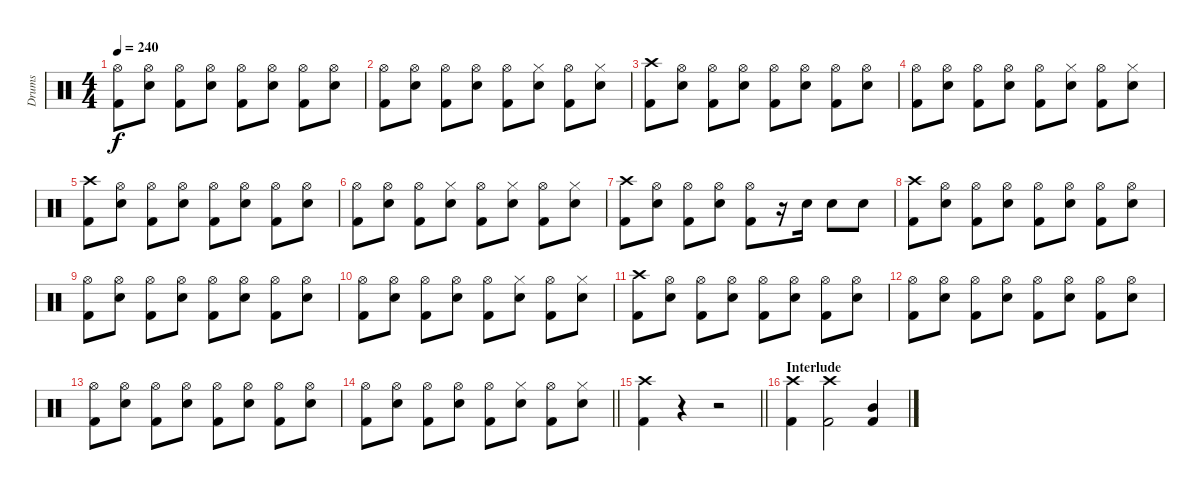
\track ("Drums" "Drums") {instrument percussion}
\staff {score}
\articulation defaults
\ts (4 4)
\tempo 240
\clef neutral
\ks c
("Hi-Hat (open)" "Kick (hit) 2").8{dy f} ("Hi-Hat (open)" "Snare (hit) 2").8 ("Hi-Hat (open)" "Kick (hit) 2").8 ("Hi-Hat (open)" "Snare (hit) 2").8 ("Hi-Hat (open)" "Kick (hit) 2").8 ("Hi-Hat (open)" "Snare (hit) 2").8 ("Hi-Hat (open)" "Kick (hit) 2").8 ("Hi-Hat (open)" "Snare (hit) 2").8 |
("Hi-Hat (open)" "Kick (hit) 2").8 ("Hi-Hat (open)" "Snare (hit) 2").8 ("Hi-Hat (open)" "Kick (hit) 2").8 ("Hi-Hat (open)" "Snare (hit) 2").8 ("Hi-Hat (open)" "Kick (hit) 2").8 ("Hi-Hat (closed)" "Snare (hit) 2").8 ("Hi-Hat (open)" "Kick (hit) 2").8 ("Hi-Hat (closed)" "Snare (hit) 2").8 |
("Crash high (hit)" "Kick (hit) 2").8 ("Hi-Hat (open)" "Snare (hit) 2").8 ("Hi-Hat (open)" "Kick (hit) 2").8 ("Hi-Hat (open)" "Snare (hit) 2").8 ("Hi-Hat (open)" "Kick (hit) 2").8 ("Hi-Hat (open)" "Snare (hit) 2").8 ("Hi-Hat (open)" "Kick (hit) 2").8 ("Hi-Hat (open)" "Snare (hit) 2").8 |
("Hi-Hat (open)" "Kick (hit) 2").8 ("Hi-Hat (open)" "Snare (hit) 2").8 ("Hi-Hat (open)" "Kick (hit) 2").8 ("Hi-Hat (open)" "Snare (hit) 2").8 ("Hi-Hat (open)" "Kick (hit) 2").8 ("Hi-Hat (closed)" "Snare (hit) 2").8 ("Hi-Hat (open)" "Kick (hit) 2").8 ("Hi-Hat (closed)" "Snare (hit) 2").8 |
("Crash high (hit)" "Kick (hit) 2").8 ("Hi-Hat (open)" "Snare (hit) 2").8 ("Hi-Hat (open)" "Kick (hit) 2").8 ("Hi-Hat (open)" "Snare (hit) 2").8 ("Hi-Hat (open)" "Kick (hit) 2").8 ("Hi-Hat (open)" "Snare (hit) 2").8 ("Hi-Hat (open)" "Kick (hit) 2").8 ("Hi-Hat (open)" "Snare (hit) 2").8 |
("Hi-Hat (open)" "Kick (hit) 2").8 ("Hi-Hat (open)" "Snare (hit) 2").8 ("Hi-Hat (open)" "Kick (hit) 2").8 ("Hi-Hat (closed)" "Snare (hit) 2").8 ("Hi-Hat (open)" "Kick (hit) 2").8 ("Hi-Hat (closed)" "Snare (hit) 2").8 ("Hi-Hat (open)" "Kick (hit) 2").8 ("Hi-Hat (closed)" "Snare (hit) 2").8 |
("Crash high (hit)" "Kick (hit) 2").8 ("Hi-Hat (open)" "Snare (hit) 2").8 ("Hi-Hat (open)" "Kick (hit) 2").8 ("Hi-Hat (open)" "Snare (hit) 2").8 ("Hi-Hat (open)" "Kick (hit) 2").8 r.16 "Snare (hit) 2".16 "Snare (hit) 2".8 "Snare (hit) 2".8 |
("Crash high (hit)" "Kick (hit) 2").8 ("Hi-Hat (open)" "Snare (hit) 2").8 ("Hi-Hat (open)" "Kick (hit) 2").8 ("Hi-Hat (open)" "Snare (hit) 2").8 ("Hi-Hat (open)" "Kick (hit) 2").8 ("Hi-Hat (open)" "Snare (hit) 2").8 ("Hi-Hat (open)" "Kick (hit) 2").8 ("Hi-Hat (open)" "Snare (hit) 2").8 |
("Hi-Hat (open)" "Kick (hit) 2").8 ("Hi-Hat (open)" "Snare (hit) 2").8 ("Hi-Hat (open)" "Kick (hit) 2").8 ("Hi-Hat (open)" "Snare (hit) 2").8 ("Hi-Hat (open)" "Kick (hit) 2").8 ("Hi-Hat (open)" "Snare (hit) 2").8 ("Hi-Hat (open)" "Kick (hit) 2").8 ("Hi-Hat (open)" "Snare (hit) 2").8 |
("Hi-Hat (open)" "Kick (hit) 2").8 ("Hi-Hat (open)" "Snare (hit) 2").8 ("Hi-Hat (open)" "Kick (hit) 2").8 ("Hi-Hat (open)" "Snare (hit) 2").8 ("Hi-Hat (open)" "Kick (hit) 2").8 ("Hi-Hat (closed)" "Snare (hit) 2").8 ("Hi-Hat (open)" "Kick (hit) 2").8 ("Hi-Hat (closed)" "Snare (hit) 2").8 |
("Crash high (hit)" "Kick (hit) 2").8 ("Hi-Hat (open)" "Snare (hit) 2").8 ("Hi-Hat (open)" "Kick (hit) 2").8 ("Hi-Hat (open)" "Snare (hit) 2").8 ("Hi-Hat (open)" "Kick (hit) 2").8 ("Hi-Hat (open)" "Snare (hit) 2").8 ("Hi-Hat (open)" "Kick (hit) 2").8 ("Hi-Hat (open)" "Snare (hit) 2").8 |
("Hi-Hat (open)" "Kick (hit) 2").8 ("Hi-Hat (open)" "Snare (hit) 2").8 ("Hi-Hat (open)" "Kick (hit) 2").8 ("Hi-Hat (open)" "Snare (hit) 2").8 ("Hi-Hat (open)" "Kick (hit) 2").8 ("Hi-Hat (open)" "Snare (hit) 2").8 ("Hi-Hat (open)" "Kick (hit) 2").8 ("Hi-Hat (open)" "Snare (hit) 2").8 |
("Hi-Hat (open)" "Kick (hit) 2").8 ("Hi-Hat (open)" "Snare (hit) 2").8 ("Hi-Hat (open)" "Kick (hit) 2").8 ("Hi-Hat (open)" "Snare (hit) 2").8 ("Hi-Hat (open)" "Kick (hit) 2").8 ("Hi-Hat (open)" "Snare (hit) 2").8 ("Hi-Hat (open)" "Kick (hit) 2").8 ("Hi-Hat (open)" "Snare (hit) 2").8 |
\barLineRight lightlight
("Hi-Hat (open)" "Kick (hit) 2").8 ("Hi-Hat (open)" "Snare (hit) 2").8 ("Hi-Hat (open)" "Kick (hit) 2").8 ("Hi-Hat (open)" "Snare (hit) 2").8 ("Hi-Hat (open)" "Kick (hit) 2").8 ("Hi-Hat (closed)" "Snare (hit) 2").8 ("Hi-Hat (open)" "Kick (hit) 2").8 ("Hi-Hat (closed)" "Snare (hit) 2").8 |
\barLineRight lightlight
("Crash high (hit)" "Kick (hit) 2").4 r.4 r.2 |
\section ("" "Interlude")
("Crash high (hit)" "Kick (hit) 2").4 ("Crash high (hit)" "Kick (hit) 2").2 ("Kick (hit) 2" "Mid Tom (hit)").4
